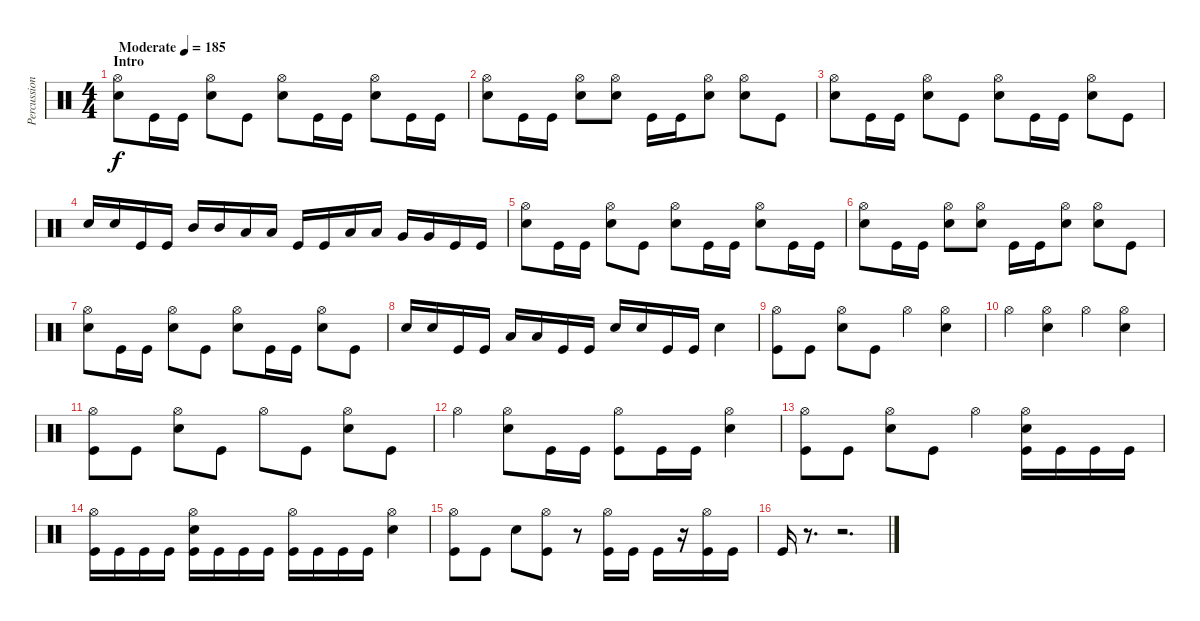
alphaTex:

\track ("Percussion" "Percussion") {instrument percussion}
\staff {score}
\articulation defaults
\ts (4 4)
\section ("" "Intro")
\tempo (185 "Moderate")
\clef neutral
\ks c
("Hi-Hat (open)" "Snare (hit) 2").8{dy f volume 7} "Kick (hit)".16 "Kick (hit)".16 ("Hi-Hat (open)" "Snare (hit) 2").8 "Kick (hit)".8 ("Hi-Hat (open)" "Snare (hit) 2").8 "Kick (hit)".16 "Kick (hit)".16 ("Hi-Hat (open)" "Snare (hit) 2").8 "Kick (hit)".16 "Kick (hit)".16 |
("Hi-Hat (open)" "Snare (hit) 2").8 "Kick (hit)".16 "Kick (hit)".16 ("Hi-Hat (open)" "Snare (hit) 2").8 ("Hi-Hat (open)" "Snare (hit) 2").8 "Kick (hit)".16 "Kick (hit)".16 ("Hi-Hat (open)" "Snare (hit) 2").8 ("Hi-Hat (open)" "Snare (hit) 2").8 "Kick (hit)".8 |
("Hi-Hat (open)" "Snare (hit) 2").8 "Kick (hit)".16 "Kick (hit)".16 ("Hi-Hat (open)" "Snare (hit) 2").8 "Kick (hit)".8 ("Hi-Hat (open)" "Snare (hit) 2").8 "Kick (hit)".16 "Kick (hit)".16 ("Hi-Hat (open)" "Snare (hit) 2").8 "Kick (hit)".8 |
"Snare (hit) 2".16 "Snare (hit) 2".16 "Kick (hit)".16 "Kick (hit)".16 "Mid Tom (hit)".16 "Mid Tom (hit)".16 "Low Tom (hit)".16 "Low Tom (hit)".16 "Kick (hit)".16 "Kick (hit)".16 "Low Tom (hit)".16 "Low Tom (hit)".16 "Very Low Tom (hit)".16 "Very Low Tom (hit)".16 "Kick (hit)".16 "Kick (hit)".16 |
("Hi-Hat (open)" "Snare (hit) 2").8 "Kick (hit)".16 "Kick (hit)".16 ("Hi-Hat (open)" "Snare (hit) 2").8 "Kick (hit)".8 ("Hi-Hat (open)" "Snare (hit) 2").8 "Kick (hit)".16 "Kick (hit)".16 ("Hi-Hat (open)" "Snare (hit) 2").8 "Kick (hit)".16 "Kick (hit)".16 |
("Hi-Hat (open)" "Snare (hit) 2").8 "Kick (hit)".16 "Kick (hit)".16 ("Hi-Hat (open)" "Snare (hit) 2").8 ("Hi-Hat (open)" "Snare (hit) 2").8 "Kick (hit)".16 "Kick (hit)".16 ("Hi-Hat (open)" "Snare (hit) 2").8 ("Hi-Hat (open)" "Snare (hit) 2").8 "Kick (hit)".8 |
("Hi-Hat (open)" "Snare (hit) 2").8 "Kick (hit)".16 "Kick (hit)".16 ("Hi-Hat (open)" "Snare (hit) 2").8 "Kick (hit)".8 ("Hi-Hat (open)" "Snare (hit) 2").8 "Kick (hit)".16 "Kick (hit)".16 ("Hi-Hat (open)" "Snare (hit) 2").8 "Kick (hit)".8 |
"Snare (hit) 2".16 "Snare (hit) 2".16 "Kick (hit)".16 "Kick (hit)".16 "Low Tom (hit)".16 "Low Tom (hit)".16 "Kick (hit)".16 "Kick (hit)".16 "Snare (hit) 2".16 "Snare (hit) 2".16 "Kick (hit)".16 "Kick (hit)".16 "Snare (hit) 2".4 |
("Hi-Hat (open)" "Kick (hit)").8{volume 13} "Kick (hit)".8 ("Hi-Hat (open)" "Snare (hit) 2").8 "Kick (hit)".8 "Hi-Hat (open)".4 ("Hi-Hat (open)" "Snare (hit) 2").4 |
"Hi-Hat (open)".4 ("Hi-Hat (open)" "Snare (hit) 2").4 "Hi-Hat (open)".4 ("Hi-Hat (open)" "Snare (hit) 2").4 |
("Hi-Hat (open)" "Kick (hit)").8 "Kick (hit)".8 ("Hi-Hat (open)" "Snare (hit) 2").8 "Kick (hit)".8 "Hi-Hat (open)".8 "Kick (hit)".8 ("Hi-Hat (open)" "Snare (hit) 2").8 "Kick (hit)".8 |
"Hi-Hat (open)".4 ("Hi-Hat (open)" "Snare (hit) 2").8 "Kick (hit)".16 "Kick (hit)".16 ("Hi-Hat (open)" "Kick (hit)").8 "Kick (hit)".16 "Kick (hit)".16 ("Hi-Hat (open)" "Snare (hit) 2").4 |
("Hi-Hat (open)" "Kick (hit)").8 "Kick (hit)".8 ("Hi-Hat (open)" "Snare (hit) 2").8 "Kick (hit)".8 "Hi-Hat (open)".4 ("Hi-Hat (open)" "Snare (hit) 2" "Kick (hit)").16 "Kick (hit)".16 "Kick (hit)".16 "Kick (hit)".16 |
("Hi-Hat (open)" "Kick (hit)").16 "Kick (hit)".16 "Kick (hit)".16 "Kick (hit)".16 ("Hi-Hat (open)" "Snare (hit) 2" "Kick (hit)").16 "Kick (hit)".16 "Kick (hit)".16 "Kick (hit)".16 ("Hi-Hat (open)" "Kick (hit)").16 "Kick (hit)".16 "Kick (hit)".16 "Kick (hit)".16 ("Hi-Hat (open)" "Snare (hit) 2").4 |
("Hi-Hat (open)" "Kick (hit)").8 "Kick (hit)".8 "Snare (hit) 2".8 ("Hi-Hat (open)" "Kick (hit)").8 r.8{volume 0} ("Hi-Hat (open)" "Kick (hit)").16{volume 13} "Kick (hit)".16 "Kick (hit)".16 r.16{volume 0} ("Hi-Hat (open)" "Kick (hit)").16{volume 13} "Kick (hit)".16 |
"Kick (hit)".16 r.8{d volume 0} r.2{d}
